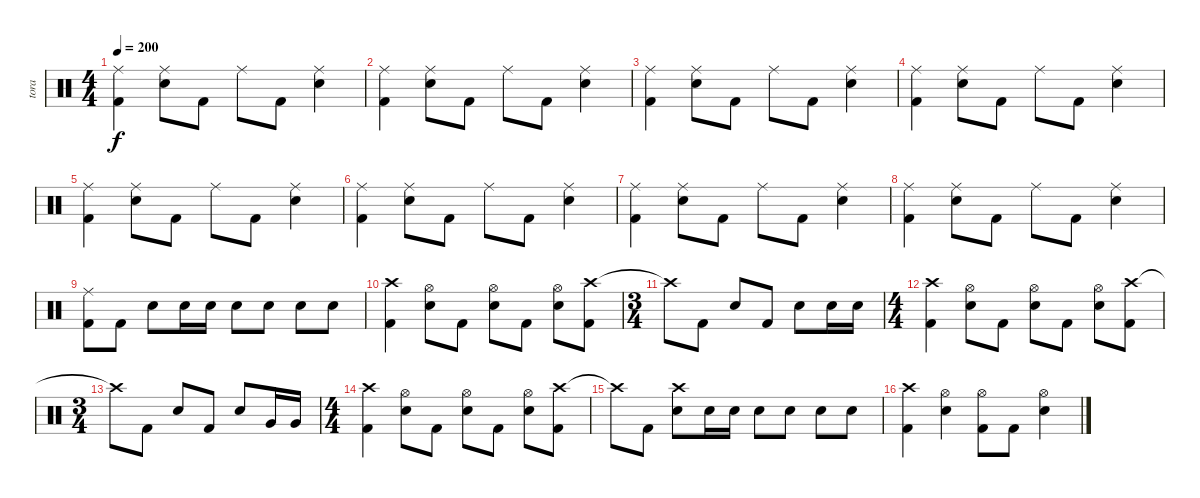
\track ("tora" "tora") {instrument percussion}
\staff {score}
\articulation defaults
\ts (4 4)
\tempo 200
\clef neutral
\ks c
("Ride (middle)" "Kick (hit) 2").4{dy f} ("Ride (middle)" "Snare (hit) 2").8 "Kick (hit) 2".8 "Ride (middle)".8 "Kick (hit) 2".8 ("Ride (middle)" "Snare (hit) 2").4 |
("Ride (middle)" "Kick (hit) 2").4 ("Ride (middle)" "Snare (hit) 2").8 "Kick (hit) 2".8 "Ride (middle)".8 "Kick (hit) 2".8 ("Ride (middle)" "Snare (hit) 2").4 |
("Ride (middle)" "Kick (hit) 2").4 ("Ride (middle)" "Snare (hit) 2").8 "Kick (hit) 2".8 "Ride (middle)".8 "Kick (hit) 2".8 ("Ride (middle)" "Snare (hit) 2").4 |
("Ride (middle)" "Kick (hit) 2").4 ("Ride (middle)" "Snare (hit) 2").8 "Kick (hit) 2".8 "Ride (middle)".8 "Kick (hit) 2".8 ("Ride (middle)" "Snare (hit) 2").4 |
("Ride (middle)" "Kick (hit) 2").4 ("Ride (middle)" "Snare (hit) 2").8 "Kick (hit) 2".8 "Ride (middle)".8 "Kick (hit) 2".8 ("Ride (middle)" "Snare (hit) 2").4 |
("Ride (middle)" "Kick (hit) 2").4 ("Ride (middle)" "Snare (hit) 2").8 "Kick (hit) 2".8 "Ride (middle)".8 "Kick (hit) 2".8 ("Ride (middle)" "Snare (hit) 2").4 |
("Ride (middle)" "Kick (hit) 2").4 ("Ride (middle)" "Snare (hit) 2").8 "Kick (hit) 2".8 "Ride (middle)".8 "Kick (hit) 2".8 ("Ride (middle)" "Snare (hit) 2").4 |
("Ride (middle)" "Kick (hit) 2").4 ("Ride (middle)" "Snare (hit) 2").8 "Kick (hit) 2".8 "Ride (middle)".8 "Kick (hit) 2".8 ("Ride (middle)" "Snare (hit) 2").4 |
("Ride (middle)" "Kick (hit) 2").8 "Kick (hit) 2".8 "Snare (hit) 2".8 "Snare (hit) 2".16 "Snare (hit) 2".16 "Snare (hit) 2".8 "Snare (hit) 2".8 "Snare (hit) 2".8 "Snare (hit) 2".8 |
("Crash high (hit)" "Kick (hit) 2").4 ("Hi-Hat (open)" "Snare (hit) 2").8 "Kick (hit) 2".8 ("Hi-Hat (open)" "Snare (hit) 2").8 "Kick (hit) 2".8 ("Hi-Hat (open)" "Snare (hit) 2").8 ("Crash high (hit)" "Kick (hit) 2").8 |
\ts (3 4)
"Crash high (hit)"{t}.8 "Kick (hit) 2".8 "Snare (hit) 2".8 "Kick (hit) 2".8 "Snare (hit) 2".8 "Snare (hit) 2".16 "Snare (hit) 2".16 |
\ts (4 4)
("Crash high (hit)" "Kick (hit) 2").4 ("Hi-Hat (open)" "Snare (hit) 2").8 "Kick (hit) 2".8 ("Hi-Hat (open)" "Snare (hit) 2").8 "Kick (hit) 2".8 ("Hi-Hat (open)" "Snare (hit) 2").8 ("Crash high (hit)" "Kick (hit) 2").8 |
\ts (3 4)
"Crash high (hit)"{t}.8 "Kick (hit) 2".8 "Snare (hit) 2".8 "Kick (hit) 2".8 "Snare (hit) 2".8 "Very Low Tom (hit)".16 "Very Low Tom (hit)".16 |
\ts (4 4)
("Crash high (hit)" "Kick (hit) 2").4 ("Hi-Hat (open)" "Snare (hit) 2").8 "Kick (hit) 2".8 ("Hi-Hat (open)" "Snare (hit) 2").8 "Kick (hit) 2".8 ("Hi-Hat (open)" "Snare (hit) 2").8 ("Crash high (hit)" "Kick (hit) 2").8 |
"Crash high (hit)"{t}.8 "Kick (hit) 2".8 ("Crash high (hit)" "Snare (hit) 2").8 "Snare (hit) 2".16 "Snare (hit) 2".16 "Snare (hit) 2".8 "Snare (hit) 2".8 "Snare (hit) 2".8 "Snare (hit) 2".8 |
("Crash high (hit)" "Kick (hit) 2").4 ("Hi-Hat (open)" "Snare (hit) 2").4 ("Hi-Hat (open)" "Kick (hit) 2").8 "Kick (hit) 2".8 ("Hi-Hat (open)" "Snare (hit) 2").4
